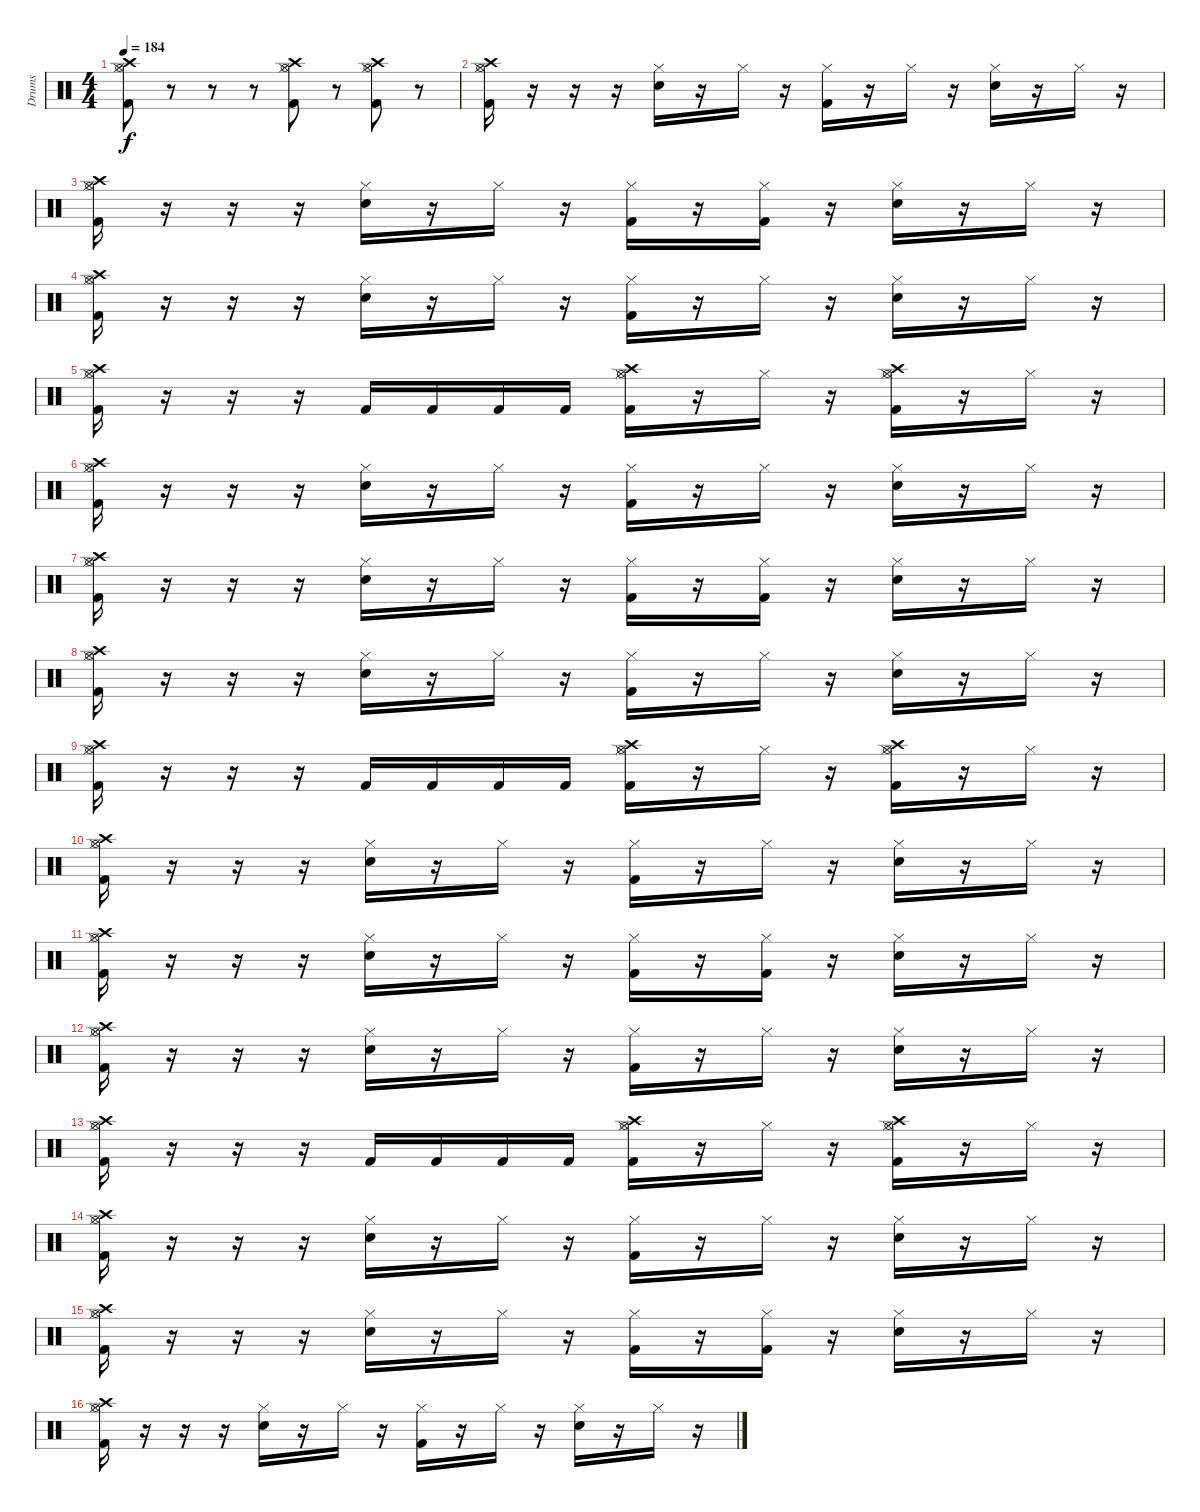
\track ("Drums" "Drums") {instrument percussion}
\staff {score}
\articulation defaults
\ts (4 4)
\tempo 184
\clef neutral
\ks c
("Kick (hit) 2" "Hi-Hat (closed)" "Hi-Hat (open)" "Crash high (hit)").8{dy f} r.8 r.8 r.8 ("Kick (hit) 2" "Hi-Hat (closed)" "Hi-Hat (open)" "Crash high (hit)").8 r.8 ("Kick (hit) 2" "Hi-Hat (closed)" "Hi-Hat (open)" "Crash high (hit)").8 r.8 |
("Kick (hit) 2" "Hi-Hat (closed)" "Hi-Hat (open)" "Crash high (hit)").16 r.16 r.16 r.16 ("Electric Snare (hit)" "Hi-Hat (closed)").16 r.16 "Hi-Hat (closed)".16 r.16 ("Kick (hit) 2" "Hi-Hat (closed)").16 r.16 "Hi-Hat (closed)".16 r.16 ("Electric Snare (hit)" "Hi-Hat (closed)").16 r.16 "Hi-Hat (closed)".16 r.16 |
("Kick (hit) 2" "Hi-Hat (closed)" "Hi-Hat (open)" "Crash high (hit)").16 r.16 r.16 r.16 ("Electric Snare (hit)" "Hi-Hat (closed)").16 r.16 "Hi-Hat (closed)".16 r.16 ("Kick (hit) 2" "Hi-Hat (closed)").16 r.16 ("Kick (hit) 2" "Hi-Hat (closed)").16 r.16 ("Electric Snare (hit)" "Hi-Hat (closed)").16 r.16 "Hi-Hat (closed)".16 r.16 |
("Kick (hit) 2" "Hi-Hat (closed)" "Hi-Hat (open)" "Crash high (hit)").16 r.16 r.16 r.16 ("Electric Snare (hit)" "Hi-Hat (closed)").16 r.16 "Hi-Hat (closed)".16 r.16 ("Kick (hit) 2" "Hi-Hat (closed)").16 r.16 "Hi-Hat (closed)".16 r.16 ("Electric Snare (hit)" "Hi-Hat (closed)").16 r.16 "Hi-Hat (closed)".16 r.16 |
("Kick (hit) 2" "Hi-Hat (closed)" "Hi-Hat (open)" "Crash high (hit)").16 r.16 r.16 r.16 "Kick (hit) 2".16 "Kick (hit) 2".16 "Kick (hit) 2".16 "Kick (hit) 2".16 ("Kick (hit) 2" "Hi-Hat (closed)" "Hi-Hat (open)" "Crash high (hit)").16 r.16 "Hi-Hat (closed)".16 r.16 ("Kick (hit) 2" "Hi-Hat (closed)" "Hi-Hat (open)" "Crash high (hit)").16 r.16 "Hi-Hat (closed)".16 r.16 |
("Kick (hit) 2" "Hi-Hat (closed)" "Hi-Hat (open)" "Crash high (hit)").16 r.16 r.16 r.16 ("Electric Snare (hit)" "Hi-Hat (closed)").16 r.16 "Hi-Hat (closed)".16 r.16 ("Kick (hit) 2" "Hi-Hat (closed)").16 r.16 "Hi-Hat (closed)".16 r.16 ("Electric Snare (hit)" "Hi-Hat (closed)").16 r.16 "Hi-Hat (closed)".16 r.16 |
("Kick (hit) 2" "Hi-Hat (closed)" "Hi-Hat (open)" "Crash high (hit)").16 r.16 r.16 r.16 ("Electric Snare (hit)" "Hi-Hat (closed)").16 r.16 "Hi-Hat (closed)".16 r.16 ("Kick (hit) 2" "Hi-Hat (closed)").16 r.16 ("Kick (hit) 2" "Hi-Hat (closed)").16 r.16 ("Electric Snare (hit)" "Hi-Hat (closed)").16 r.16 "Hi-Hat (closed)".16 r.16 |
("Kick (hit) 2" "Hi-Hat (closed)" "Hi-Hat (open)" "Crash high (hit)").16 r.16 r.16 r.16 ("Electric Snare (hit)" "Hi-Hat (closed)").16 r.16 "Hi-Hat (closed)".16 r.16 ("Kick (hit) 2" "Hi-Hat (closed)").16 r.16 "Hi-Hat (closed)".16 r.16 ("Electric Snare (hit)" "Hi-Hat (closed)").16 r.16 "Hi-Hat (closed)".16 r.16 |
("Kick (hit) 2" "Hi-Hat (closed)" "Hi-Hat (open)" "Crash high (hit)").16 r.16 r.16 r.16 "Kick (hit) 2".16 "Kick (hit) 2".16 "Kick (hit) 2".16 "Kick (hit) 2".16 ("Kick (hit) 2" "Hi-Hat (closed)" "Hi-Hat (open)" "Crash high (hit)").16 r.16 "Hi-Hat (closed)".16 r.16 ("Kick (hit) 2" "Hi-Hat (closed)" "Hi-Hat (open)" "Crash high (hit)").16 r.16 "Hi-Hat (closed)".16 r.16 |
("Kick (hit) 2" "Hi-Hat (closed)" "Hi-Hat (open)" "Crash high (hit)").16 r.16 r.16 r.16 ("Electric Snare (hit)" "Hi-Hat (closed)").16 r.16 "Hi-Hat (closed)".16 r.16 ("Kick (hit) 2" "Hi-Hat (closed)").16 r.16 "Hi-Hat (closed)".16 r.16 ("Electric Snare (hit)" "Hi-Hat (closed)").16 r.16 "Hi-Hat (closed)".16 r.16 |
("Kick (hit) 2" "Hi-Hat (closed)" "Hi-Hat (open)" "Crash high (hit)").16 r.16 r.16 r.16 ("Electric Snare (hit)" "Hi-Hat (closed)").16 r.16 "Hi-Hat (closed)".16 r.16 ("Kick (hit) 2" "Hi-Hat (closed)").16 r.16 ("Kick (hit) 2" "Hi-Hat (closed)").16 r.16 ("Electric Snare (hit)" "Hi-Hat (closed)").16 r.16 "Hi-Hat (closed)".16 r.16 |
("Kick (hit) 2" "Hi-Hat (closed)" "Hi-Hat (open)" "Crash high (hit)").16 r.16 r.16 r.16 ("Electric Snare (hit)" "Hi-Hat (closed)").16 r.16 "Hi-Hat (closed)".16 r.16 ("Kick (hit) 2" "Hi-Hat (closed)").16 r.16 "Hi-Hat (closed)".16 r.16 ("Electric Snare (hit)" "Hi-Hat (closed)").16 r.16 "Hi-Hat (closed)".16 r.16 |
("Kick (hit) 2" "Hi-Hat (closed)" "Hi-Hat (open)" "Crash high (hit)").16 r.16 r.16 r.16 "Kick (hit) 2".16 "Kick (hit) 2".16 "Kick (hit) 2".16 "Kick (hit) 2".16 ("Kick (hit) 2" "Hi-Hat (closed)" "Hi-Hat (open)" "Crash high (hit)").16 r.16 "Hi-Hat (closed)".16 r.16 ("Kick (hit) 2" "Hi-Hat (closed)" "Hi-Hat (open)" "Crash high (hit)").16 r.16 "Hi-Hat (closed)".16 r.16 |
("Kick (hit) 2" "Hi-Hat (closed)" "Hi-Hat (open)" "Crash high (hit)").16 r.16 r.16 r.16 ("Electric Snare (hit)" "Hi-Hat (closed)").16 r.16 "Hi-Hat (closed)".16 r.16 ("Kick (hit) 2" "Hi-Hat (closed)").16 r.16 "Hi-Hat (closed)".16 r.16 ("Electric Snare (hit)" "Hi-Hat (closed)").16 r.16 "Hi-Hat (closed)".16 r.16 |
("Kick (hit) 2" "Hi-Hat (closed)" "Hi-Hat (open)" "Crash high (hit)").16 r.16 r.16 r.16 ("Electric Snare (hit)" "Hi-Hat (closed)").16 r.16 "Hi-Hat (closed)".16 r.16 ("Kick (hit) 2" "Hi-Hat (closed)").16 r.16 ("Kick (hit) 2" "Hi-Hat (closed)").16 r.16 ("Electric Snare (hit)" "Hi-Hat (closed)").16 r.16 "Hi-Hat (closed)".16 r.16 |
("Kick (hit) 2" "Hi-Hat (closed)" "Hi-Hat (open)" "Crash high (hit)").16 r.16 r.16 r.16 ("Electric Snare (hit)" "Hi-Hat (closed)").16 r.16 "Hi-Hat (closed)".16 r.16 ("Kick (hit) 2" "Hi-Hat (closed)").16 r.16 "Hi-Hat (closed)".16 r.16 ("Electric Snare (hit)" "Hi-Hat (closed)").16 r.16 "Hi-Hat (closed)".16 r.16
